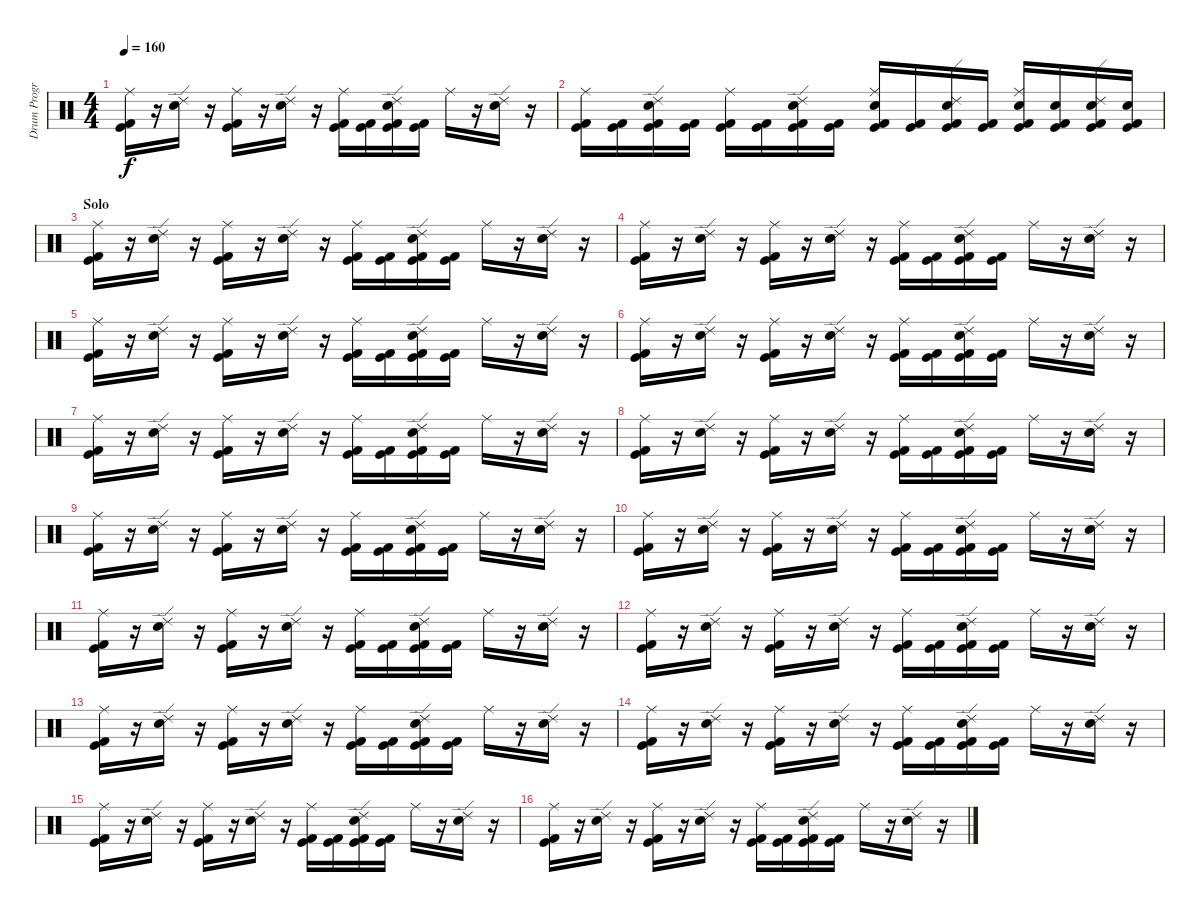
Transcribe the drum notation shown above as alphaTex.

\track ("Drum Program - BG" "Drum Progr") {instrument percussion}
\staff {score}
\articulation defaults
\ts (4 4)
\tempo 160
\clef neutral
\ks c
("Kick (hit) 2" "Kick (hit)" "Ride (middle)").16{dy f} r.16 ("Electric Snare (hit)" "Ride (edge) 2").16 r.16 ("Kick (hit)" "Kick (hit) 2" "Ride (middle)").16 r.16 ("Electric Snare (hit)" "Ride (edge) 2").16 r.16 ("Kick (hit)" "Kick (hit) 2" "Ride (middle)").16 ("Kick (hit)" "Kick (hit) 2").16 ("Kick (hit)" "Kick (hit) 2" "Electric Snare (hit)" "Ride (edge) 2").16 ("Kick (hit)" "Kick (hit) 2").16 "Ride (middle)".16 r.16 ("Electric Snare (hit)" "Ride (edge) 2").16 r.16 |
("Kick (hit)" "Kick (hit) 2" "Ride (middle)").16 ("Kick (hit)" "Kick (hit) 2").16 ("Kick (hit)" "Kick (hit) 2" "Electric Snare (hit)" "Ride (edge) 2").16 ("Kick (hit)" "Kick (hit) 2").16 ("Kick (hit)" "Kick (hit) 2" "Ride (middle)").16 ("Kick (hit)" "Kick (hit) 2").16 ("Kick (hit)" "Kick (hit) 2" "Electric Snare (hit)" "Ride (edge) 2").16 ("Kick (hit)" "Kick (hit) 2").16 ("Kick (hit)" "Kick (hit) 2" "Electric Snare (hit)" "Ride (middle)").16 ("Kick (hit)" "Kick (hit) 2").16 ("Kick (hit)" "Kick (hit) 2" "Electric Snare (hit)" "Ride (edge) 2").16 ("Kick (hit)" "Kick (hit) 2").16 ("Kick (hit)" "Kick (hit) 2" "Electric Snare (hit)" "Ride (middle)").16 ("Kick (hit)" "Kick (hit) 2" "Electric Snare (hit)").16 ("Kick (hit)" "Kick (hit) 2" "Electric Snare (hit)" "Ride (edge) 2").16 ("Kick (hit)" "Kick (hit) 2" "Electric Snare (hit)").16 |
\section ("" "Solo")
("Kick (hit) 2" "Kick (hit)" "Ride (middle)").16 r.16 ("Electric Snare (hit)" "Ride (edge) 2").16 r.16 ("Kick (hit)" "Kick (hit) 2" "Ride (middle)").16 r.16 ("Electric Snare (hit)" "Ride (edge) 2").16 r.16 ("Kick (hit)" "Kick (hit) 2" "Ride (middle)").16 ("Kick (hit)" "Kick (hit) 2").16 ("Kick (hit)" "Kick (hit) 2" "Electric Snare (hit)" "Ride (edge) 2").16 ("Kick (hit)" "Kick (hit) 2").16 "Ride (middle)".16 r.16 ("Electric Snare (hit)" "Ride (edge) 2").16 r.16 |
("Kick (hit) 2" "Kick (hit)" "Ride (middle)").16 r.16 ("Electric Snare (hit)" "Ride (edge) 2").16 r.16 ("Kick (hit)" "Kick (hit) 2" "Ride (middle)").16 r.16 ("Electric Snare (hit)" "Ride (edge) 2").16 r.16 ("Kick (hit)" "Kick (hit) 2" "Ride (middle)").16 ("Kick (hit)" "Kick (hit) 2").16 ("Kick (hit)" "Kick (hit) 2" "Electric Snare (hit)" "Ride (edge) 2").16 ("Kick (hit)" "Kick (hit) 2").16 "Ride (middle)".16 r.16 ("Electric Snare (hit)" "Ride (edge) 2").16 r.16 |
("Kick (hit) 2" "Kick (hit)" "Ride (middle)").16 r.16 ("Electric Snare (hit)" "Ride (edge) 2").16 r.16 ("Kick (hit)" "Kick (hit) 2" "Ride (middle)").16 r.16 ("Electric Snare (hit)" "Ride (edge) 2").16 r.16 ("Kick (hit)" "Kick (hit) 2" "Ride (middle)").16 ("Kick (hit)" "Kick (hit) 2").16 ("Kick (hit)" "Kick (hit) 2" "Electric Snare (hit)" "Ride (edge) 2").16 ("Kick (hit)" "Kick (hit) 2").16 "Ride (middle)".16 r.16 ("Electric Snare (hit)" "Ride (edge) 2").16 r.16 |
("Kick (hit) 2" "Kick (hit)" "Ride (middle)").16 r.16 ("Electric Snare (hit)" "Ride (edge) 2").16 r.16 ("Kick (hit)" "Kick (hit) 2" "Ride (middle)").16 r.16 ("Electric Snare (hit)" "Ride (edge) 2").16 r.16 ("Kick (hit)" "Kick (hit) 2" "Ride (middle)").16 ("Kick (hit)" "Kick (hit) 2").16 ("Kick (hit)" "Kick (hit) 2" "Electric Snare (hit)" "Ride (edge) 2").16 ("Kick (hit)" "Kick (hit) 2").16 "Ride (middle)".16 r.16 ("Electric Snare (hit)" "Ride (edge) 2").16 r.16 |
("Kick (hit) 2" "Kick (hit)" "Ride (middle)").16 r.16 ("Electric Snare (hit)" "Ride (edge) 2").16 r.16 ("Kick (hit)" "Kick (hit) 2" "Ride (middle)").16 r.16 ("Electric Snare (hit)" "Ride (edge) 2").16 r.16 ("Kick (hit)" "Kick (hit) 2" "Ride (middle)").16 ("Kick (hit)" "Kick (hit) 2").16 ("Kick (hit)" "Kick (hit) 2" "Electric Snare (hit)" "Ride (edge) 2").16 ("Kick (hit)" "Kick (hit) 2").16 "Ride (middle)".16 r.16 ("Electric Snare (hit)" "Ride (edge) 2").16 r.16 |
("Kick (hit) 2" "Kick (hit)" "Ride (middle)").16 r.16 ("Electric Snare (hit)" "Ride (edge) 2").16 r.16 ("Kick (hit)" "Kick (hit) 2" "Ride (middle)").16 r.16 ("Electric Snare (hit)" "Ride (edge) 2").16 r.16 ("Kick (hit)" "Kick (hit) 2" "Ride (middle)").16 ("Kick (hit)" "Kick (hit) 2").16 ("Kick (hit)" "Kick (hit) 2" "Electric Snare (hit)" "Ride (edge) 2").16 ("Kick (hit)" "Kick (hit) 2").16 "Ride (middle)".16 r.16 ("Electric Snare (hit)" "Ride (edge) 2").16 r.16 |
("Kick (hit) 2" "Kick (hit)" "Ride (middle)").16 r.16 ("Electric Snare (hit)" "Ride (edge) 2").16 r.16 ("Kick (hit)" "Kick (hit) 2" "Ride (middle)").16 r.16 ("Electric Snare (hit)" "Ride (edge) 2").16 r.16 ("Kick (hit)" "Kick (hit) 2" "Ride (middle)").16 ("Kick (hit)" "Kick (hit) 2").16 ("Kick (hit)" "Kick (hit) 2" "Electric Snare (hit)" "Ride (edge) 2").16 ("Kick (hit)" "Kick (hit) 2").16 "Ride (middle)".16 r.16 ("Electric Snare (hit)" "Ride (edge) 2").16 r.16 |
("Kick (hit) 2" "Kick (hit)" "Ride (middle)").16 r.16 ("Electric Snare (hit)" "Ride (edge) 2").16 r.16 ("Kick (hit)" "Kick (hit) 2" "Ride (middle)").16 r.16 ("Electric Snare (hit)" "Ride (edge) 2").16 r.16 ("Kick (hit)" "Kick (hit) 2" "Ride (middle)").16 ("Kick (hit)" "Kick (hit) 2").16 ("Kick (hit)" "Kick (hit) 2" "Electric Snare (hit)" "Ride (edge) 2").16 ("Kick (hit)" "Kick (hit) 2").16 "Ride (middle)".16 r.16 ("Electric Snare (hit)" "Ride (edge) 2").16 r.16 |
("Kick (hit) 2" "Kick (hit)" "Ride (middle)").16 r.16 ("Electric Snare (hit)" "Ride (edge) 2").16 r.16 ("Kick (hit)" "Kick (hit) 2" "Ride (middle)").16 r.16 ("Electric Snare (hit)" "Ride (edge) 2").16 r.16 ("Kick (hit)" "Kick (hit) 2" "Ride (middle)").16 ("Kick (hit)" "Kick (hit) 2").16 ("Kick (hit)" "Kick (hit) 2" "Electric Snare (hit)" "Ride (edge) 2").16 ("Kick (hit)" "Kick (hit) 2").16 "Ride (middle)".16 r.16 ("Electric Snare (hit)" "Ride (edge) 2").16 r.16 |
("Kick (hit) 2" "Kick (hit)" "Ride (middle)").16 r.16 ("Electric Snare (hit)" "Ride (edge) 2").16 r.16 ("Kick (hit)" "Kick (hit) 2" "Ride (middle)").16 r.16 ("Electric Snare (hit)" "Ride (edge) 2").16 r.16 ("Kick (hit)" "Kick (hit) 2" "Ride (middle)").16 ("Kick (hit)" "Kick (hit) 2").16 ("Kick (hit)" "Kick (hit) 2" "Electric Snare (hit)" "Ride (edge) 2").16 ("Kick (hit)" "Kick (hit) 2").16 "Ride (middle)".16 r.16 ("Electric Snare (hit)" "Ride (edge) 2").16 r.16 |
("Kick (hit) 2" "Kick (hit)" "Ride (middle)").16 r.16 ("Electric Snare (hit)" "Ride (edge) 2").16 r.16 ("Kick (hit)" "Kick (hit) 2" "Ride (middle)").16 r.16 ("Electric Snare (hit)" "Ride (edge) 2").16 r.16 ("Kick (hit)" "Kick (hit) 2" "Ride (middle)").16 ("Kick (hit)" "Kick (hit) 2").16 ("Kick (hit)" "Kick (hit) 2" "Electric Snare (hit)" "Ride (edge) 2").16 ("Kick (hit)" "Kick (hit) 2").16 "Ride (middle)".16 r.16 ("Electric Snare (hit)" "Ride (edge) 2").16 r.16 |
("Kick (hit) 2" "Kick (hit)" "Ride (middle)").16 r.16 ("Electric Snare (hit)" "Ride (edge) 2").16 r.16 ("Kick (hit)" "Kick (hit) 2" "Ride (middle)").16 r.16 ("Electric Snare (hit)" "Ride (edge) 2").16 r.16 ("Kick (hit)" "Kick (hit) 2" "Ride (middle)").16 ("Kick (hit)" "Kick (hit) 2").16 ("Kick (hit)" "Kick (hit) 2" "Electric Snare (hit)" "Ride (edge) 2").16 ("Kick (hit)" "Kick (hit) 2").16 "Ride (middle)".16 r.16 ("Electric Snare (hit)" "Ride (edge) 2").16 r.16 |
("Kick (hit) 2" "Kick (hit)" "Ride (middle)").16 r.16 ("Electric Snare (hit)" "Ride (edge) 2").16 r.16 ("Kick (hit)" "Kick (hit) 2" "Ride (middle)").16 r.16 ("Electric Snare (hit)" "Ride (edge) 2").16 r.16 ("Kick (hit)" "Kick (hit) 2" "Ride (middle)").16 ("Kick (hit)" "Kick (hit) 2").16 ("Kick (hit)" "Kick (hit) 2" "Electric Snare (hit)" "Ride (edge) 2").16 ("Kick (hit)" "Kick (hit) 2").16 "Ride (middle)".16 r.16 ("Electric Snare (hit)" "Ride (edge) 2").16 r.16 |
("Kick (hit) 2" "Kick (hit)" "Ride (middle)").16 r.16 ("Electric Snare (hit)" "Ride (edge) 2").16 r.16 ("Kick (hit)" "Kick (hit) 2" "Ride (middle)").16 r.16 ("Electric Snare (hit)" "Ride (edge) 2").16 r.16 ("Kick (hit)" "Kick (hit) 2" "Ride (middle)").16 ("Kick (hit)" "Kick (hit) 2").16 ("Kick (hit)" "Kick (hit) 2" "Electric Snare (hit)" "Ride (edge) 2").16 ("Kick (hit)" "Kick (hit) 2").16 "Ride (middle)".16 r.16 ("Electric Snare (hit)" "Ride (edge) 2").16 r.16
